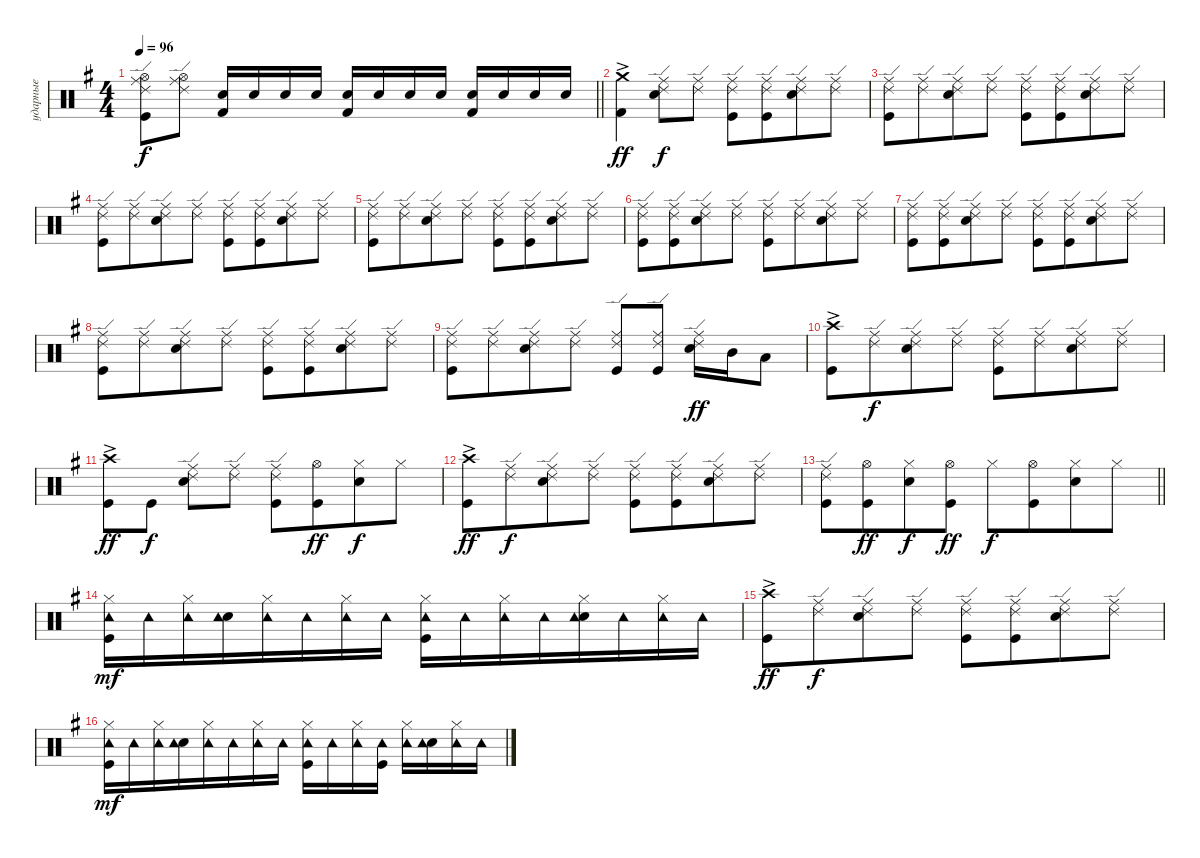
\track ("ударные" "ударные") {instrument percussion}
\staff {score}
\articulation defaults
\ts (4 4)
\tempo 96
\clef neutral
\barLineRight lightlight
\ks eminor
("Kick (hit)" "Ride (middle)" "Ride (edge) 2" "Hi-Hat (open)").8{dy f} ("Ride (middle)" "Ride (edge) 2" "Hi-Hat (open)").8 ("Snare (hit) 2" "Kick (hit) 2").16 "Snare (hit) 2".16 "Snare (hit) 2".16 "Snare (hit) 2".16 ("Snare (hit) 2" "Kick (hit) 2").16 "Snare (hit) 2".16 "Snare (hit) 2".16 "Snare (hit) 2".16 ("Snare (hit) 2" "Kick (hit) 2").16 "Snare (hit) 2".16 "Snare (hit) 2".16 "Snare (hit) 2".16 |
\section ("" "")
("Crash medium (hit)"{ac} "Kick (hit) 2").4{dy ff} ("Snare (hit) 2" "Ride (middle)" "Ride (edge) 2").8{dy f} ("Ride (middle)" "Ride (edge) 2").8 ("Kick (hit)" "Ride (middle)" "Ride (edge) 2").8 ("Kick (hit)" "Ride (middle)" "Ride (edge) 2").8{beam merge} ("Snare (hit) 2" "Ride (middle)" "Ride (edge) 2").8 ("Ride (middle)" "Ride (edge) 2").8 |
("Kick (hit)" "Ride (middle)" "Ride (edge) 2").8 ("Ride (middle)" "Ride (edge) 2").8{beam merge} ("Snare (hit) 2" "Ride (middle)" "Ride (edge) 2").8 ("Ride (middle)" "Ride (edge) 2").8 ("Kick (hit)" "Ride (middle)" "Ride (edge) 2").8 ("Kick (hit)" "Ride (middle)" "Ride (edge) 2").8{beam merge} ("Snare (hit) 2" "Ride (middle)" "Ride (edge) 2").8 ("Ride (middle)" "Ride (edge) 2").8 |
("Kick (hit)" "Ride (middle)" "Ride (edge) 2").8 ("Ride (middle)" "Ride (edge) 2").8{beam merge} ("Snare (hit) 2" "Ride (middle)" "Ride (edge) 2").8 ("Ride (middle)" "Ride (edge) 2").8 ("Kick (hit)" "Ride (middle)" "Ride (edge) 2").8 ("Kick (hit)" "Ride (middle)" "Ride (edge) 2").8{beam merge} ("Snare (hit) 2" "Ride (middle)" "Ride (edge) 2").8 ("Ride (middle)" "Ride (edge) 2").8 |
("Kick (hit)" "Ride (middle)" "Ride (edge) 2").8 ("Ride (middle)" "Ride (edge) 2").8{beam merge} ("Snare (hit) 2" "Ride (middle)" "Ride (edge) 2").8 ("Ride (middle)" "Ride (edge) 2").8 ("Kick (hit)" "Ride (middle)" "Ride (edge) 2").8 ("Kick (hit)" "Ride (middle)" "Ride (edge) 2").8{beam merge} ("Snare (hit) 2" "Ride (middle)" "Ride (edge) 2").8 ("Ride (middle)" "Ride (edge) 2").8 |
("Kick (hit)" "Ride (middle)" "Ride (edge) 2").8 ("Kick (hit)" "Ride (middle)" "Ride (edge) 2").8{beam merge} ("Snare (hit) 2" "Ride (middle)" "Ride (edge) 2").8 ("Ride (middle)" "Ride (edge) 2").8 ("Kick (hit)" "Ride (middle)" "Ride (edge) 2").8 ("Ride (middle)" "Ride (edge) 2").8{beam merge} ("Snare (hit) 2" "Ride (middle)" "Ride (edge) 2").8 ("Ride (middle)" "Ride (edge) 2").8 |
("Kick (hit)" "Ride (middle)" "Ride (edge) 2").8 ("Kick (hit)" "Ride (middle)" "Ride (edge) 2").8{beam merge} ("Snare (hit) 2" "Ride (middle)" "Ride (edge) 2").8 ("Ride (middle)" "Ride (edge) 2").8 ("Kick (hit)" "Ride (middle)" "Ride (edge) 2").8 ("Kick (hit)" "Ride (middle)" "Ride (edge) 2").8{beam merge} ("Snare (hit) 2" "Ride (middle)" "Ride (edge) 2").8 ("Ride (middle)" "Ride (edge) 2").8 |
("Kick (hit)" "Ride (middle)" "Ride (edge) 2").8 ("Ride (middle)" "Ride (edge) 2").8{beam merge} ("Snare (hit) 2" "Ride (middle)" "Ride (edge) 2").8 ("Ride (middle)" "Ride (edge) 2").8 ("Kick (hit)" "Ride (middle)" "Ride (edge) 2").8 ("Kick (hit)" "Ride (middle)" "Ride (edge) 2").8{beam merge} ("Snare (hit) 2" "Ride (middle)" "Ride (edge) 2").8 ("Ride (middle)" "Ride (edge) 2").8 |
("Kick (hit)" "Ride (middle)" "Ride (edge) 2").8 ("Ride (middle)" "Ride (edge) 2").8{beam merge} ("Snare (hit) 2" "Ride (middle)" "Ride (edge) 2").8 ("Ride (middle)" "Ride (edge) 2").8 ("Kick (hit)" "Ride (middle)" "Ride (edge) 2").8 ("Kick (hit)" "Ride (middle)" "Ride (edge) 2").8 ("Snare (hit) 2" "Ride (middle)" "Ride (edge) 2").16{dy ff} "Mid Tom (hit)".16 "Low Tom (hit)".8 |
("Kick (hit)" "Crash high (hit)"{ac}).8 ("Ride (middle)" "Ride (edge) 2").8{dy f beam merge} ("Snare (hit) 2" "Ride (middle)" "Ride (edge) 2").8 ("Ride (middle)" "Ride (edge) 2").8 ("Kick (hit)" "Ride (middle)" "Ride (edge) 2").8 ("Ride (middle)" "Ride (edge) 2").8{beam merge} ("Snare (hit) 2" "Ride (middle)" "Ride (edge) 2").8 ("Ride (middle)" "Ride (edge) 2").8 |
("Kick (hit)" "Crash high (hit)"{ac}).8{dy ff} "Kick (hit)".8{dy f} ("Snare (hit) 2" "Ride (middle)" "Ride (edge) 2").8 ("Ride (middle)" "Ride (edge) 2").8 ("Kick (hit)" "Ride (middle)" "Ride (edge) 2").8 ("Kick (hit)" "Hi-Hat (open)").8{dy ff beam merge} ("Snare (hit) 2" "Hi-Hat (closed)").8{dy f} "Hi-Hat (closed)".8 |
("Kick (hit)" "Crash high (hit)"{ac}).8{dy ff} ("Ride (middle)" "Ride (edge) 2").8{dy f beam merge} ("Snare (hit) 2" "Ride (middle)" "Ride (edge) 2").8 ("Ride (middle)" "Ride (edge) 2").8 ("Kick (hit)" "Ride (middle)" "Ride (edge) 2").8 ("Ride (middle)" "Ride (edge) 2" "Kick (hit)").8{beam merge} ("Snare (hit) 2" "Ride (middle)" "Ride (edge) 2").8 ("Ride (middle)" "Ride (edge) 2").8 |
\barLineRight lightlight
("Kick (hit)" "Ride (middle)" "Ride (edge) 2").8 ("Kick (hit)" "Hi-Hat (open)").8{dy ff beam merge} ("Snare (hit) 2" "Hi-Hat (closed)").8{dy f} ("Kick (hit)" "Hi-Hat (open)").8{dy ff} "Hi-Hat (closed)".8{dy f} ("Kick (hit)" "Hi-Hat (open)").8{beam merge} ("Snare (hit) 2" "Hi-Hat (closed)").8 "Hi-Hat (closed)".8 |
\section ("" "")
("Kick (hit)" "Hi-Hat (closed)" "Tambourine (hit)").16{dy mf} "Tambourine (hit)".16 ("Hi-Hat (closed)" "Tambourine (hit)").16 ("Snare (hit) 2" "Tambourine (hit)").16{beam merge} ("Hi-Hat (closed)" "Tambourine (hit)").16 "Tambourine (hit)".16 ("Hi-Hat (closed)" "Tambourine (hit)").16 "Tambourine (hit)".16 ("Kick (hit)" "Hi-Hat (closed)" "Tambourine (hit)").16 "Tambourine (hit)".16 ("Hi-Hat (closed)" "Tambourine (hit)").16 "Tambourine (hit)".16{beam merge} ("Snare (hit) 2" "Hi-Hat (closed)" "Tambourine (hit)").16 "Tambourine (hit)".16 ("Tambourine (hit)" "Hi-Hat (closed)").16 "Tambourine (hit)".16 |
("Kick (hit)" "Crash high (hit)"{ac}).8{dy ff} ("Ride (middle)" "Ride (edge) 2").8{dy f beam merge} ("Snare (hit) 2" "Ride (middle)" "Ride (edge) 2").8 ("Ride (middle)" "Ride (edge) 2").8 ("Kick (hit)" "Ride (middle)" "Ride (edge) 2").8 ("Kick (hit)" "Ride (middle)" "Ride (edge) 2").8{beam merge} ("Ride (middle)" "Ride (edge) 2" "Snare (hit) 2").8 ("Ride (middle)" "Ride (edge) 2").8 |
("Kick (hit)" "Hi-Hat (closed)" "Tambourine (hit)").16{dy mf} "Tambourine (hit)".16 ("Hi-Hat (closed)" "Tambourine (hit)").16 ("Snare (hit) 2" "Tambourine (hit)").16{beam merge} ("Hi-Hat (closed)" "Tambourine (hit)").16 "Tambourine (hit)".16 ("Hi-Hat (closed)" "Tambourine (hit)").16 "Tambourine (hit)".16 ("Kick (hit)" "Hi-Hat (closed)" "Tambourine (hit)").16 "Tambourine (hit)".16 ("Hi-Hat (closed)" "Tambourine (hit)").16 ("Kick (hit)" "Tambourine (hit)").16 ("Hi-Hat (closed)" "Tambourine (hit)").16 ("Snare (hit) 2" "Tambourine (hit)").16 ("Hi-Hat (closed)" "Tambourine (hit)").16 "Tambourine (hit)".16
